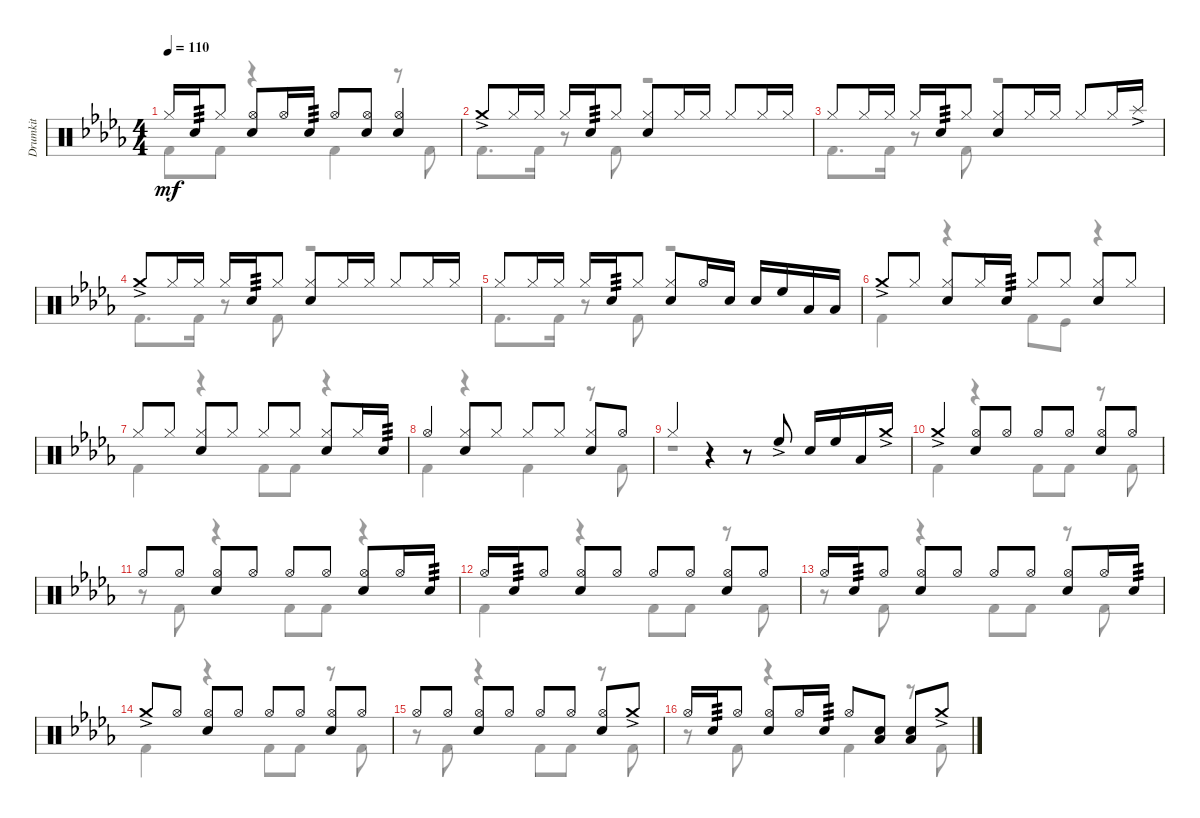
\track ("Drumkit" "Drumkit") {instrument percussion}
\staff {score}
\articulation defaults
\voice
\ts (4 4)
\tempo 110
\clef neutral
\ks db "Hi-Hat (closed)".16{dy mf} "Snare (hit) 2".16{tp 3} "Hi-Hat (closed)".8
("Hi-Hat (open)" "Snare (hit) 2").8 "Hi-Hat (open)".16 "Snare (hit) 2".16{tp 3} "Hi-Hat (open)".8 ("Hi-Hat (open)" "Snare (hit) 2").8 ("Hi-Hat (open)" "Snare (hit) 2").4 |
\section ("" "")
"Crash medium (hit)"{ac}.8 "Hi-Hat (closed)".16 "Hi-Hat (closed)".16 "Hi-Hat (closed)".16 "Snare (hit) 2".16{tp 3} "Hi-Hat (closed)".8 ("Snare (hit) 2" "Hi-Hat (closed)").8 "Hi-Hat (closed)".16 "Hi-Hat (closed)".16 "Hi-Hat (closed)".8 "Hi-Hat (closed)".16 "Hi-Hat (closed)".16 |
"Hi-Hat (closed)".8 "Hi-Hat (closed)".16 "Hi-Hat (closed)".16 "Hi-Hat (closed)".16 "Snare (hit) 2".16{tp 3} "Hi-Hat (closed)".8 ("Snare (hit) 2" "Hi-Hat (closed)").8 "Hi-Hat (closed)".16 "Hi-Hat (closed)".16 "Hi-Hat (closed)".8 "Hi-Hat (closed)".16 "Splash (hit)"{ac}.16 |
"Crash medium (hit)"{ac}.8 "Hi-Hat (closed)".16 "Hi-Hat (closed)".16 "Hi-Hat (closed)".16 "Snare (hit) 2".16{tp 3} "Hi-Hat (closed)".8 ("Snare (hit) 2" "Hi-Hat (closed)").8 "Hi-Hat (closed)".16 "Hi-Hat (closed)".16 "Hi-Hat (closed)".8 "Hi-Hat (closed)".16 "Hi-Hat (closed)".16 |
"Hi-Hat (closed)".8 "Hi-Hat (closed)".16 "Hi-Hat (closed)".16 "Hi-Hat (closed)".16 "Snare (hit) 2".16{tp 3} "Hi-Hat (closed)".8 ("Snare (hit) 2" "Hi-Hat (closed)").8 "Hi-Hat (open)".16 "Snare (hit) 2".16 "Snare (hit) 2".16 "High Floor Tom (hit)".16 "Low Floor Tom (hit)".16 "Low Floor Tom (hit)".16 |
"Crash medium (hit)"{ac}.8 "Hi-Hat (closed)".8 ("Snare (hit) 2" "Hi-Hat (closed)").8 "Hi-Hat (closed)".16 "Snare (hit) 2".16{tp 3} "Hi-Hat (closed)".8 "Hi-Hat (closed)".8 ("Snare (hit) 2" "Hi-Hat (closed)").8 "Hi-Hat (closed)".8 |
"Hi-Hat (closed)".8 "Hi-Hat (closed)".8 ("Snare (hit) 2" "Hi-Hat (closed)").8 "Hi-Hat (closed)".8 "Hi-Hat (closed)".8 "Hi-Hat (closed)".8 ("Snare (hit) 2" "Hi-Hat (closed)").8 "Hi-Hat (closed)".16 "Snare (hit) 2".16{tp 3} |
"Hi-Hat (open)".4 ("Hi-Hat (closed)" "Snare (hit) 2").8 "Hi-Hat (closed)".8 "Hi-Hat (closed)".8 "Hi-Hat (closed)".8 ("Hi-Hat (closed)" "Snare (hit) 2").8 "Hi-Hat (open)".8 |
"Hi-Hat (closed)".4 r.4 r.8 "High Floor Tom (hit)"{ac}.8 "Snare (hit) 2".16 "High Floor Tom (hit)".16 "Low Floor Tom (hit)".16 "Crash medium (hit)"{ac}.16 |
\section ("" "")
"Crash medium (hit)"{ac}.4 ("Hi-Hat (open)" "Snare (hit) 2").8 "Hi-Hat (open)".8 "Hi-Hat (open)".8 "Hi-Hat (open)".8 ("Hi-Hat (open)" "Snare (hit) 2").8 "Hi-Hat (open)".8 |
"Hi-Hat (open)".8 "Hi-Hat (open)".8 ("Hi-Hat (open)" "Snare (hit) 2").8 "Hi-Hat (open)".8 "Hi-Hat (open)".8 "Hi-Hat (open)".8 ("Hi-Hat (open)" "Snare (hit) 2").8 "Hi-Hat (open)".16 "Snare (hit) 2".16{tp 3} |
"Hi-Hat (open)".16 "Snare (hit) 2".16{tp 3} "Hi-Hat (open)".8 ("Hi-Hat (open)" "Snare (hit) 2").8 "Hi-Hat (open)".8 "Hi-Hat (open)".8 "Hi-Hat (open)".8 ("Hi-Hat (open)" "Snare (hit) 2").8 "Hi-Hat (open)".8 |
"Hi-Hat (open)".16 "Snare (hit) 2".16{tp 3} "Hi-Hat (open)".8 ("Hi-Hat (open)" "Snare (hit) 2").8 "Hi-Hat (open)".8 "Hi-Hat (open)".8 "Hi-Hat (open)".8 ("Hi-Hat (open)" "Snare (hit) 2").8 "Hi-Hat (open)".16 "Snare (hit) 2".16{tp 3} |
"Crash medium (hit)"{ac}.8 "Hi-Hat (open)".8 ("Hi-Hat (open)" "Snare (hit) 2").8 "Hi-Hat (open)".8 "Hi-Hat (open)".8 "Hi-Hat (open)".8 ("Hi-Hat (open)" "Snare (hit) 2").8 "Hi-Hat (open)".8 |
"Hi-Hat (open)".8 "Hi-Hat (open)".8 ("Hi-Hat (open)" "Snare (hit) 2").8 "Hi-Hat (open)".8 "Hi-Hat (open)".8 "Hi-Hat (open)".8 ("Hi-Hat (open)" "Snare (hit) 2").8 "Crash medium (hit)"{ac}.8 |
"Hi-Hat (open)".16 "Snare (hit) 2".16{tp 3} "Hi-Hat (open)".8 ("Hi-Hat (open)" "Snare (hit) 2").8 "Hi-Hat (open)".16 "Snare (hit) 2".16{tp 3} "Hi-Hat (open)".8 ("Snare (hit) 2" "Low Floor Tom (hit)").8 ("Low Floor Tom (hit)" "Snare (hit) 2").8 "Crash medium (hit)"{ac}.8
\voice
\clef neutral
\ottava regular
\simile none
\ks db "Kick (hit) 2".8{dy mf} "Kick (hit) 2".8
r.4 "Kick (hit) 2".4 r.8 "Kick (hit) 2".8 |
"Kick (hit) 2".8{d} "Kick (hit) 2".16 r.8 "Kick (hit) 2".8 r.2 |
"Kick (hit) 2".8{d} "Kick (hit) 2".16 r.8 "Kick (hit) 2".8 r.2 |
"Kick (hit) 2".8{d} "Kick (hit) 2".16 r.8 "Kick (hit) 2".8 r.2 |
"Kick (hit) 2".8{d} "Kick (hit) 2".16 r.8 "Kick (hit) 2".8 r.2 |
"Kick (hit) 2".4 r.4 "Kick (hit) 2".8 "Kick (hit)".8 r.4 |
"Kick (hit) 2".4 r.4 "Kick (hit) 2".8 "Kick (hit) 2".8 r.4 |
"Kick (hit) 2".4 r.4 "Kick (hit) 2".4 r.8 "Kick (hit) 2".8 |
r.1 |
"Kick (hit) 2".4 r.4 "Kick (hit) 2".8 "Kick (hit) 2".8 r.8 "Kick (hit) 2".8 |
r.8 "Kick (hit) 2".8 r.4 "Kick (hit) 2".8 "Kick (hit) 2".8 r.4 |
"Kick (hit) 2".4 r.4 "Kick (hit) 2".8 "Kick (hit) 2".8 r.8 "Kick (hit) 2".8 |
r.8 "Kick (hit) 2".8 r.4 "Kick (hit) 2".8 "Kick (hit) 2".8 r.8 "Kick (hit) 2".8 |
"Kick (hit) 2".4 r.4 "Kick (hit) 2".8 "Kick (hit) 2".8 r.8 "Kick (hit) 2".8 |
r.8 "Kick (hit) 2".8 r.4 "Kick (hit) 2".8 "Kick (hit) 2".8 r.8 "Kick (hit) 2".8 |
r.8 "Kick (hit) 2".8 r.4 "Kick (hit) 2".4 r.8 "Kick (hit) 2".8
